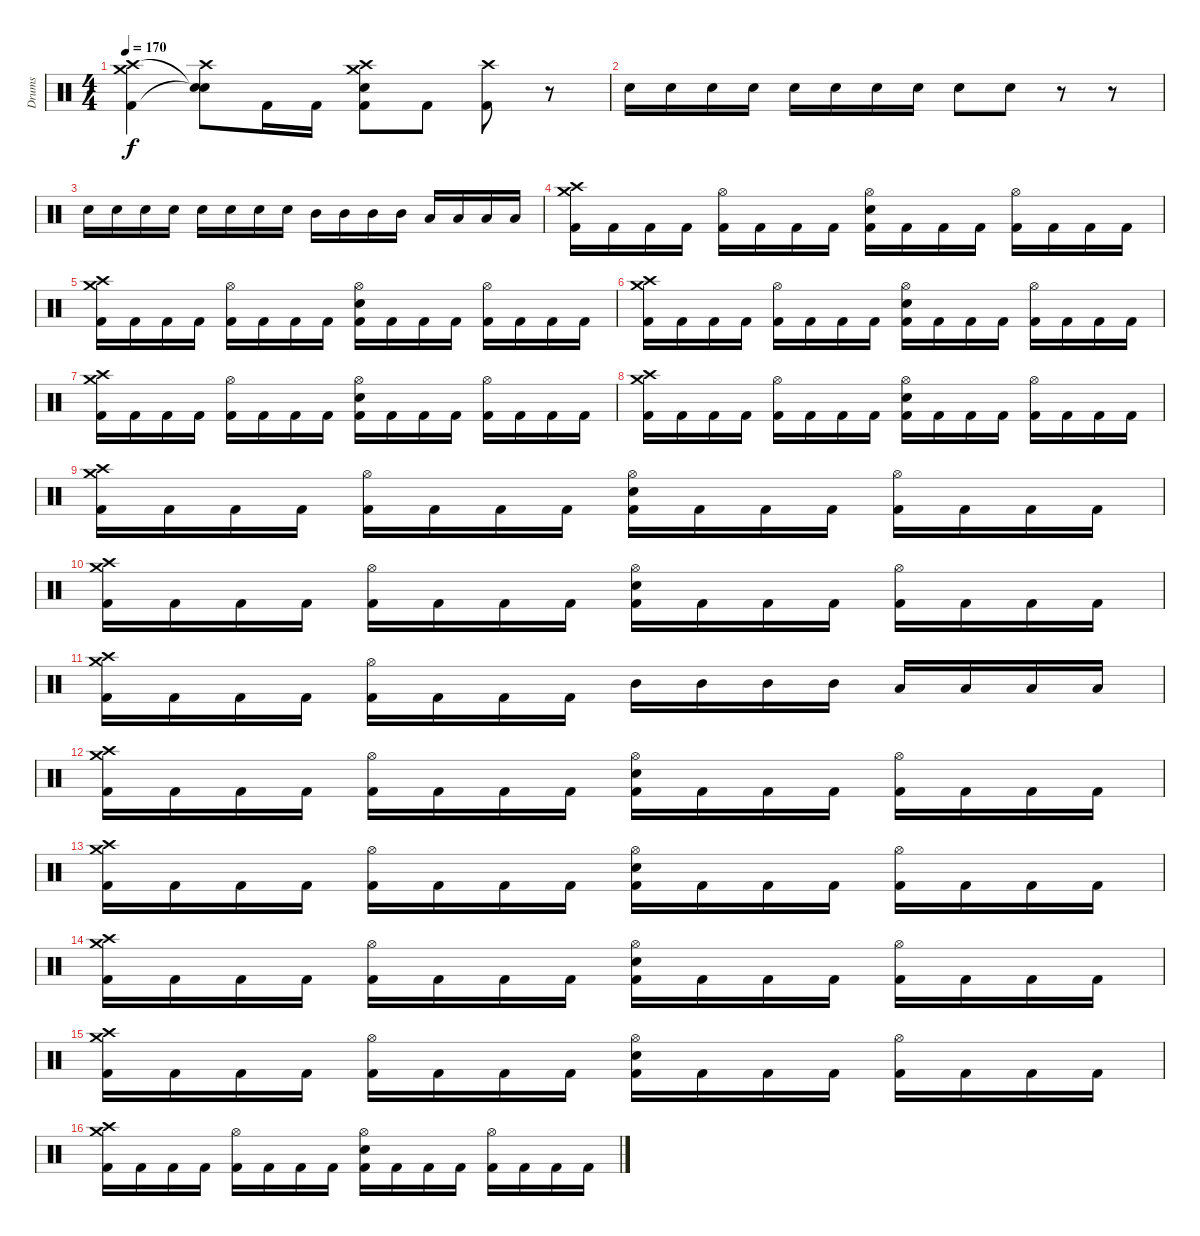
\track ("Drums" "Drums") {instrument percussion}
\staff {score}
\articulation defaults
\ts (4 4)
\tempo 170
\clef neutral
\ks c
("Crash medium (hit)" "Crash high (hit)" "Kick (hit) 2").4{dy f} ("Crash high (hit)" "Snare (hit)"{t} "Snare (hit)"{t}).8 "Kick (hit) 2".16 "Kick (hit) 2".16 ("Crash high (hit)" "Snare (hit) 2" "Crash medium (hit)" "Kick (hit) 2").8 "Kick (hit) 2".8 ("Crash high (hit)" "Kick (hit) 2").8 r.8 |
"Snare (hit) 2".16 "Snare (hit) 2".16 "Snare (hit) 2".16 "Snare (hit) 2".16 "Snare (hit) 2".16 "Snare (hit) 2".16 "Snare (hit) 2".16 "Snare (hit) 2".16 "Snare (hit) 2".8 "Snare (hit) 2".8 r.8 r.8 |
"Snare (hit) 2".16 "Snare (hit) 2".16 "Snare (hit) 2".16 "Snare (hit) 2".16 "Snare (hit) 2".16 "Snare (hit) 2".16 "Snare (hit) 2".16 "Snare (hit) 2".16 "Mid Tom (hit)".16 "Mid Tom (hit)".16 "Mid Tom (hit)".16 "Mid Tom (hit)".16 "Low Tom (hit)".16 "Low Tom (hit)".16 "Low Tom (hit)".16 "Low Tom (hit)".16 |
("Crash medium (hit)" "Crash high (hit)" "Kick (hit) 2").16 "Kick (hit) 2".16 "Kick (hit) 2".16 "Kick (hit) 2".16 ("Hi-Hat (open)" "Kick (hit) 2").16 "Kick (hit) 2".16 "Kick (hit) 2".16 "Kick (hit) 2".16 ("Hi-Hat (open)" "Snare (hit) 2" "Kick (hit) 2").16 "Kick (hit) 2".16 "Kick (hit) 2".16 "Kick (hit) 2".16 ("Hi-Hat (open)" "Kick (hit) 2").16 "Kick (hit) 2".16 "Kick (hit) 2".16 "Kick (hit) 2".16 |
("Crash medium (hit)" "Crash high (hit)" "Kick (hit) 2").16 "Kick (hit) 2".16 "Kick (hit) 2".16 "Kick (hit) 2".16 ("Hi-Hat (open)" "Kick (hit) 2").16 "Kick (hit) 2".16 "Kick (hit) 2".16 "Kick (hit) 2".16 ("Hi-Hat (open)" "Snare (hit) 2" "Kick (hit) 2").16 "Kick (hit) 2".16 "Kick (hit) 2".16 "Kick (hit) 2".16 ("Hi-Hat (open)" "Kick (hit) 2").16 "Kick (hit) 2".16 "Kick (hit) 2".16 "Kick (hit) 2".16 |
("Crash medium (hit)" "Crash high (hit)" "Kick (hit) 2").16 "Kick (hit) 2".16 "Kick (hit) 2".16 "Kick (hit) 2".16 ("Hi-Hat (open)" "Kick (hit) 2").16 "Kick (hit) 2".16 "Kick (hit) 2".16 "Kick (hit) 2".16 ("Hi-Hat (open)" "Snare (hit) 2" "Kick (hit) 2").16 "Kick (hit) 2".16 "Kick (hit) 2".16 "Kick (hit) 2".16 ("Hi-Hat (open)" "Kick (hit) 2").16 "Kick (hit) 2".16 "Kick (hit) 2".16 "Kick (hit) 2".16 |
("Crash medium (hit)" "Crash high (hit)" "Kick (hit) 2").16 "Kick (hit) 2".16 "Kick (hit) 2".16 "Kick (hit) 2".16 ("Hi-Hat (open)" "Kick (hit) 2").16 "Kick (hit) 2".16 "Kick (hit) 2".16 "Kick (hit) 2".16 ("Hi-Hat (open)" "Snare (hit) 2" "Kick (hit) 2").16 "Kick (hit) 2".16 "Kick (hit) 2".16 "Kick (hit) 2".16 ("Hi-Hat (open)" "Kick (hit) 2").16 "Kick (hit) 2".16 "Kick (hit) 2".16 "Kick (hit) 2".16 |
("Crash medium (hit)" "Crash high (hit)" "Kick (hit) 2").16 "Kick (hit) 2".16 "Kick (hit) 2".16 "Kick (hit) 2".16 ("Hi-Hat (open)" "Kick (hit) 2").16 "Kick (hit) 2".16 "Kick (hit) 2".16 "Kick (hit) 2".16 ("Hi-Hat (open)" "Snare (hit) 2" "Kick (hit) 2").16 "Kick (hit) 2".16 "Kick (hit) 2".16 "Kick (hit) 2".16 ("Hi-Hat (open)" "Kick (hit) 2").16 "Kick (hit) 2".16 "Kick (hit) 2".16 "Kick (hit) 2".16 |
("Crash medium (hit)" "Crash high (hit)" "Kick (hit) 2").16 "Kick (hit) 2".16 "Kick (hit) 2".16 "Kick (hit) 2".16 ("Hi-Hat (open)" "Kick (hit) 2").16 "Kick (hit) 2".16 "Kick (hit) 2".16 "Kick (hit) 2".16 ("Hi-Hat (open)" "Snare (hit) 2" "Kick (hit) 2").16 "Kick (hit) 2".16 "Kick (hit) 2".16 "Kick (hit) 2".16 ("Hi-Hat (open)" "Kick (hit) 2").16 "Kick (hit) 2".16 "Kick (hit) 2".16 "Kick (hit) 2".16 |
("Crash medium (hit)" "Crash high (hit)" "Kick (hit) 2").16 "Kick (hit) 2".16 "Kick (hit) 2".16 "Kick (hit) 2".16 ("Hi-Hat (open)" "Kick (hit) 2").16 "Kick (hit) 2".16 "Kick (hit) 2".16 "Kick (hit) 2".16 ("Hi-Hat (open)" "Snare (hit) 2" "Kick (hit) 2").16 "Kick (hit) 2".16 "Kick (hit) 2".16 "Kick (hit) 2".16 ("Hi-Hat (open)" "Kick (hit) 2").16 "Kick (hit) 2".16 "Kick (hit) 2".16 "Kick (hit) 2".16 |
("Crash medium (hit)" "Crash high (hit)" "Kick (hit) 2").16 "Kick (hit) 2".16 "Kick (hit) 2".16 "Kick (hit) 2".16 ("Hi-Hat (open)" "Kick (hit) 2").16 "Kick (hit) 2".16 "Kick (hit) 2".16 "Kick (hit) 2".16 "Mid Tom (hit)".16 "Mid Tom (hit)".16 "Mid Tom (hit)".16 "Mid Tom (hit)".16 "Low Tom (hit)".16 "Low Tom (hit)".16 "Low Tom (hit)".16 "Low Tom (hit)".16 |
("Crash medium (hit)" "Crash high (hit)" "Kick (hit) 2").16 "Kick (hit) 2".16 "Kick (hit) 2".16 "Kick (hit) 2".16 ("Hi-Hat (open)" "Kick (hit) 2").16 "Kick (hit) 2".16 "Kick (hit) 2".16 "Kick (hit) 2".16 ("Hi-Hat (open)" "Snare (hit) 2" "Kick (hit) 2").16 "Kick (hit) 2".16 "Kick (hit) 2".16 "Kick (hit) 2".16 ("Hi-Hat (open)" "Kick (hit) 2").16 "Kick (hit) 2".16 "Kick (hit) 2".16 "Kick (hit) 2".16 |
("Crash medium (hit)" "Crash high (hit)" "Kick (hit) 2").16 "Kick (hit) 2".16 "Kick (hit) 2".16 "Kick (hit) 2".16 ("Hi-Hat (open)" "Kick (hit) 2").16 "Kick (hit) 2".16 "Kick (hit) 2".16 "Kick (hit) 2".16 ("Hi-Hat (open)" "Snare (hit) 2" "Kick (hit) 2").16 "Kick (hit) 2".16 "Kick (hit) 2".16 "Kick (hit) 2".16 ("Hi-Hat (open)" "Kick (hit) 2").16 "Kick (hit) 2".16 "Kick (hit) 2".16 "Kick (hit) 2".16 |
("Crash medium (hit)" "Crash high (hit)" "Kick (hit) 2").16 "Kick (hit) 2".16 "Kick (hit) 2".16 "Kick (hit) 2".16 ("Hi-Hat (open)" "Kick (hit) 2").16 "Kick (hit) 2".16 "Kick (hit) 2".16 "Kick (hit) 2".16 ("Hi-Hat (open)" "Snare (hit) 2" "Kick (hit) 2").16 "Kick (hit) 2".16 "Kick (hit) 2".16 "Kick (hit) 2".16 ("Hi-Hat (open)" "Kick (hit) 2").16 "Kick (hit) 2".16 "Kick (hit) 2".16 "Kick (hit) 2".16 |
("Crash medium (hit)" "Crash high (hit)" "Kick (hit) 2").16 "Kick (hit) 2".16 "Kick (hit) 2".16 "Kick (hit) 2".16 ("Hi-Hat (open)" "Kick (hit) 2").16 "Kick (hit) 2".16 "Kick (hit) 2".16 "Kick (hit) 2".16 ("Hi-Hat (open)" "Snare (hit) 2" "Kick (hit) 2").16 "Kick (hit) 2".16 "Kick (hit) 2".16 "Kick (hit) 2".16 ("Hi-Hat (open)" "Kick (hit) 2").16 "Kick (hit) 2".16 "Kick (hit) 2".16 "Kick (hit) 2".16 |
("Crash medium (hit)" "Crash high (hit)" "Kick (hit) 2").16 "Kick (hit) 2".16 "Kick (hit) 2".16 "Kick (hit) 2".16 ("Hi-Hat (open)" "Kick (hit) 2").16 "Kick (hit) 2".16 "Kick (hit) 2".16 "Kick (hit) 2".16 ("Hi-Hat (open)" "Snare (hit) 2" "Kick (hit) 2").16 "Kick (hit) 2".16 "Kick (hit) 2".16 "Kick (hit) 2".16 ("Hi-Hat (open)" "Kick (hit) 2").16 "Kick (hit) 2".16 "Kick (hit) 2".16 "Kick (hit) 2".16
